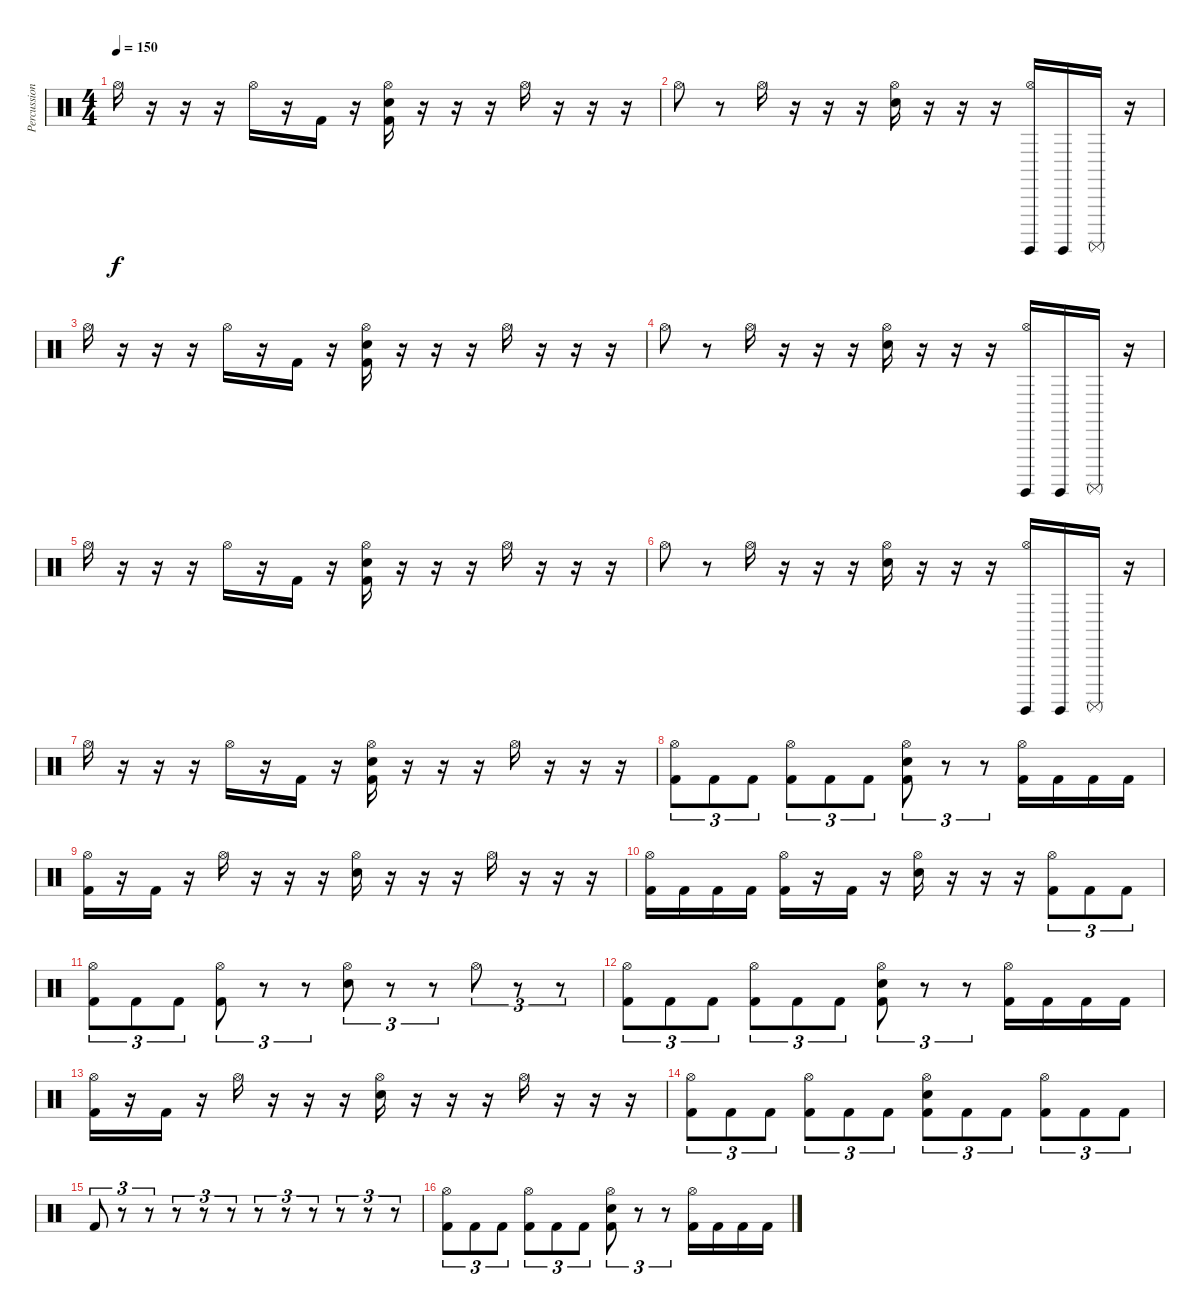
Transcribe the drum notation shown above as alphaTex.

\track ("Percussions" "Percussion") {instrument percussion}
\staff {score}
\articulation defaults
\ts (4 4)
\tempo 150
\clef neutral
\ks c "Hi-Hat (open)".16{dy f}
r.16 r.16 r.16 "Hi-Hat (open)".16 r.16 "Kick (hit) 2".16 r.16 ("Hi-Hat (open)" "Electric Snare (hit)" "Kick (hit) 2").16 r.16 r.16 r.16 "Hi-Hat (open)".16 r.16 r.16 r.16 |
"Hi-Hat (open)".8 r.8 "Hi-Hat (open)".16 r.16 r.16 r.16 ("Hi-Hat (open)" "Electric Snare (hit)").16 r.16 r.16 r.16 ("Hi-Hat (open)" "Surdo (hit)").16 "Surdo (hit)".16 "Surdo (mute)".16 r.16 |
"Hi-Hat (open)".16 r.16 r.16 r.16 "Hi-Hat (open)".16 r.16 "Kick (hit) 2".16 r.16 ("Hi-Hat (open)" "Electric Snare (hit)" "Kick (hit) 2").16 r.16 r.16 r.16 "Hi-Hat (open)".16 r.16 r.16 r.16 |
"Hi-Hat (open)".8 r.8 "Hi-Hat (open)".16 r.16 r.16 r.16 ("Hi-Hat (open)" "Electric Snare (hit)").16 r.16 r.16 r.16 ("Hi-Hat (open)" "Surdo (hit)").16 "Surdo (hit)".16 "Surdo (mute)".16 r.16 |
"Hi-Hat (open)".16 r.16 r.16 r.16 "Hi-Hat (open)".16 r.16 "Kick (hit) 2".16 r.16 ("Hi-Hat (open)" "Electric Snare (hit)" "Kick (hit) 2").16 r.16 r.16 r.16 "Hi-Hat (open)".16 r.16 r.16 r.16 |
"Hi-Hat (open)".8 r.8 "Hi-Hat (open)".16 r.16 r.16 r.16 ("Hi-Hat (open)" "Electric Snare (hit)").16 r.16 r.16 r.16 ("Hi-Hat (open)" "Surdo (hit)").16 "Surdo (hit)".16 "Surdo (mute)".16 r.16 |
"Hi-Hat (open)".16 r.16 r.16 r.16 "Hi-Hat (open)".16 r.16 "Kick (hit) 2".16 r.16 ("Hi-Hat (open)" "Electric Snare (hit)" "Kick (hit) 2").16 r.16 r.16 r.16 "Hi-Hat (open)".16 r.16 r.16 r.16 |
("Hi-Hat (open)" "Kick (hit) 2").8{tu (3 2)} "Kick (hit) 2".8{tu (3 2)} "Kick (hit) 2".8{tu (3 2)} ("Hi-Hat (open)" "Kick (hit) 2").8{tu (3 2)} "Kick (hit) 2".8{tu (3 2)} "Kick (hit) 2".8{tu (3 2)} ("Hi-Hat (open)" "Electric Snare (hit)" "Kick (hit) 2").8{tu (3 2)} r.8{tu (3 2)} r.8{tu (3 2)} ("Hi-Hat (open)" "Kick (hit) 2").16 "Kick (hit) 2".16 "Kick (hit) 2".16 "Kick (hit) 2".16 |
("Hi-Hat (open)" "Kick (hit) 2").16 r.16 "Kick (hit) 2".16 r.16 "Hi-Hat (open)".16 r.16 r.16 r.16 ("Hi-Hat (open)" "Electric Snare (hit)").16 r.16 r.16 r.16 "Hi-Hat (open)".16 r.16 r.16 r.16 |
("Hi-Hat (open)" "Kick (hit) 2").16 "Kick (hit) 2".16 "Kick (hit) 2".16 "Kick (hit) 2".16 ("Hi-Hat (open)" "Kick (hit) 2").16 r.16 "Kick (hit) 2".16 r.16 ("Hi-Hat (open)" "Electric Snare (hit)").16 r.16 r.16 r.16 ("Hi-Hat (open)" "Kick (hit) 2").8{tu (3 2)} "Kick (hit) 2".8{tu (3 2)} "Kick (hit) 2".8{tu (3 2)} |
("Hi-Hat (open)" "Kick (hit) 2").8{tu (3 2)} "Kick (hit) 2".8{tu (3 2)} "Kick (hit) 2".8{tu (3 2)} ("Hi-Hat (open)" "Kick (hit) 2").8{tu (3 2)} r.8{tu (3 2)} r.8{tu (3 2)} ("Hi-Hat (open)" "Electric Snare (hit)").8{tu (3 2)} r.8{tu (3 2)} r.8{tu (3 2)} "Hi-Hat (open)".8{tu (3 2)} r.8{tu (3 2)} r.8{tu (3 2)} |
("Hi-Hat (open)" "Kick (hit) 2").8{tu (3 2)} "Kick (hit) 2".8{tu (3 2)} "Kick (hit) 2".8{tu (3 2)} ("Hi-Hat (open)" "Kick (hit) 2").8{tu (3 2)} "Kick (hit) 2".8{tu (3 2)} "Kick (hit) 2".8{tu (3 2)} ("Hi-Hat (open)" "Electric Snare (hit)" "Kick (hit) 2").8{tu (3 2)} r.8{tu (3 2)} r.8{tu (3 2)} ("Hi-Hat (open)" "Kick (hit) 2").16 "Kick (hit) 2".16 "Kick (hit) 2".16 "Kick (hit) 2".16 |
("Hi-Hat (open)" "Kick (hit) 2").16 r.16 "Kick (hit) 2".16 r.16 "Hi-Hat (open)".16 r.16 r.16 r.16 ("Hi-Hat (open)" "Electric Snare (hit)").16 r.16 r.16 r.16 "Hi-Hat (open)".16 r.16 r.16 r.16 |
("Hi-Hat (open)" "Kick (hit) 2").8{tu (3 2)} "Kick (hit) 2".8{tu (3 2)} "Kick (hit) 2".8{tu (3 2)} ("Hi-Hat (open)" "Kick (hit) 2").8{tu (3 2)} "Kick (hit) 2".8{tu (3 2)} "Kick (hit) 2".8{tu (3 2)} ("Hi-Hat (open)" "Electric Snare (hit)" "Kick (hit) 2").8{tu (3 2)} "Kick (hit) 2".8{tu (3 2)} "Kick (hit) 2".8{tu (3 2)} ("Hi-Hat (open)" "Kick (hit) 2").8{tu (3 2)} "Kick (hit) 2".8{tu (3 2)} "Kick (hit) 2".8{tu (3 2)} |
"Kick (hit) 2".8{tu (3 2)} r.8{tu (3 2)} r.8{tu (3 2)} r.8{tu (3 2)} r.8{tu (3 2)} r.8{tu (3 2)} r.8{tu (3 2)} r.8{tu (3 2)} r.8{tu (3 2)} r.8{tu (3 2)} r.8{tu (3 2)} r.8{tu (3 2)} |
("Hi-Hat (open)" "Kick (hit) 2").8{tu (3 2)} "Kick (hit) 2".8{tu (3 2)} "Kick (hit) 2".8{tu (3 2)} ("Hi-Hat (open)" "Kick (hit) 2").8{tu (3 2)} "Kick (hit) 2".8{tu (3 2)} "Kick (hit) 2".8{tu (3 2)} ("Hi-Hat (open)" "Electric Snare (hit)" "Kick (hit) 2").8{tu (3 2)} r.8{tu (3 2)} r.8{tu (3 2)} ("Hi-Hat (open)" "Kick (hit) 2").16 "Kick (hit) 2".16 "Kick (hit) 2".16 "Kick (hit) 2".16
